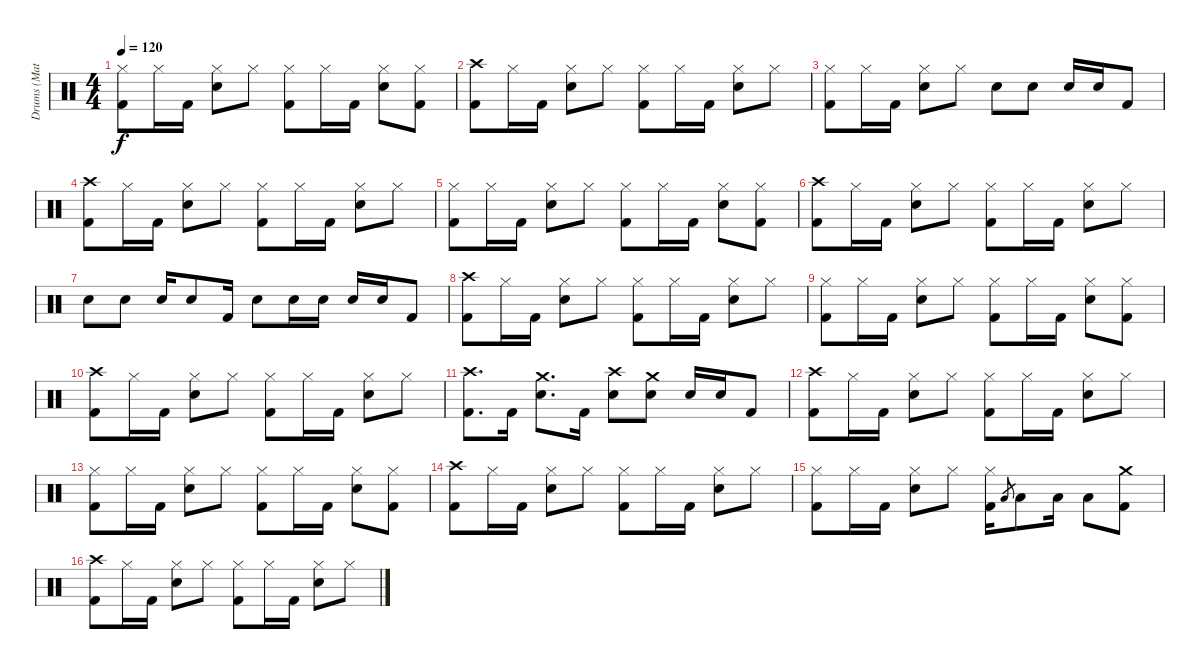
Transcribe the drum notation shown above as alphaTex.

\track ("Drums (Matt)" "Drums (Mat") {instrument percussion}
\staff {score}
\articulation defaults
\ts (4 4)
\tempo 120
\clef neutral
\ks c
("Hi-Hat (closed)" "Kick (hit) 2").8{dy f} "Hi-Hat (closed)".16 "Kick (hit) 2".16 ("Hi-Hat (closed)" "Snare (hit) 2").8 "Hi-Hat (closed)".8 ("Hi-Hat (closed)" "Kick (hit) 2").8 "Hi-Hat (closed)".16 "Kick (hit) 2".16 ("Hi-Hat (closed)" "Snare (hit) 2").8 ("Hi-Hat (closed)" "Kick (hit) 2").8 |
("Crash high (hit)" "Kick (hit) 2").8 "Hi-Hat (closed)".16 "Kick (hit) 2".16 ("Hi-Hat (closed)" "Snare (hit) 2").8 "Hi-Hat (closed)".8 ("Hi-Hat (closed)" "Kick (hit) 2").8 "Hi-Hat (closed)".16 "Kick (hit) 2".16 ("Hi-Hat (closed)" "Snare (hit) 2").8 "Hi-Hat (closed)".8 |
("Hi-Hat (closed)" "Kick (hit) 2").8 "Hi-Hat (closed)".16 "Kick (hit) 2".16 ("Hi-Hat (closed)" "Snare (hit) 2").8 "Hi-Hat (closed)".8 "Snare (hit) 2".8 "Snare (hit) 2".8 "Snare (hit) 2".16 "Snare (hit) 2".16 "Kick (hit) 2".8 |
("Crash high (hit)" "Kick (hit) 2").8 "Hi-Hat (closed)".16 "Kick (hit) 2".16 ("Hi-Hat (closed)" "Snare (hit) 2").8 "Hi-Hat (closed)".8 ("Hi-Hat (closed)" "Kick (hit) 2").8 "Hi-Hat (closed)".16 "Kick (hit) 2".16 ("Hi-Hat (closed)" "Snare (hit) 2").8 "Hi-Hat (closed)".8 |
("Hi-Hat (closed)" "Kick (hit) 2").8 "Hi-Hat (closed)".16 "Kick (hit) 2".16 ("Hi-Hat (closed)" "Snare (hit) 2").8 "Hi-Hat (closed)".8 ("Hi-Hat (closed)" "Kick (hit) 2").8 "Hi-Hat (closed)".16 "Kick (hit) 2".16 ("Hi-Hat (closed)" "Snare (hit) 2").8 ("Hi-Hat (closed)" "Kick (hit) 2").8 |
("Crash high (hit)" "Kick (hit) 2").8 "Hi-Hat (closed)".16 "Kick (hit) 2".16 ("Hi-Hat (closed)" "Snare (hit) 2").8 "Hi-Hat (closed)".8 ("Hi-Hat (closed)" "Kick (hit) 2").8 "Hi-Hat (closed)".16 "Kick (hit) 2".16 ("Hi-Hat (closed)" "Snare (hit) 2").8 "Hi-Hat (closed)".8 |
"Snare (hit) 2".8 "Snare (hit) 2".8 "Snare (hit) 2".16 "Snare (hit) 2".8 "Kick (hit) 2".16 "Snare (hit) 2".8 "Snare (hit) 2".16 "Snare (hit) 2".16 "Snare (hit) 2".16 "Snare (hit) 2".16 "Kick (hit) 2".8 |
("Crash high (hit)" "Kick (hit) 2").8 "Hi-Hat (closed)".16 "Kick (hit) 2".16 ("Hi-Hat (closed)" "Snare (hit) 2").8 "Hi-Hat (closed)".8 ("Hi-Hat (closed)" "Kick (hit) 2").8 "Hi-Hat (closed)".16 "Kick (hit) 2".16 ("Hi-Hat (closed)" "Snare (hit) 2").8 "Hi-Hat (closed)".8 |
("Hi-Hat (closed)" "Kick (hit) 2").8 "Hi-Hat (closed)".16 "Kick (hit) 2".16 ("Hi-Hat (closed)" "Snare (hit) 2").8 "Hi-Hat (closed)".8 ("Hi-Hat (closed)" "Kick (hit) 2").8 "Hi-Hat (closed)".16 "Kick (hit) 2".16 ("Hi-Hat (closed)" "Snare (hit) 2").8 ("Hi-Hat (closed)" "Kick (hit) 2").8 |
("Crash high (hit)" "Kick (hit) 2").8 "Hi-Hat (closed)".16 "Kick (hit) 2".16 ("Hi-Hat (closed)" "Snare (hit) 2").8 "Hi-Hat (closed)".8 ("Hi-Hat (closed)" "Kick (hit) 2").8 "Hi-Hat (closed)".16 "Kick (hit) 2".16 ("Hi-Hat (closed)" "Snare (hit) 2").8 "Hi-Hat (closed)".8 |
("Crash high (hit)" "Kick (hit) 2").8{d} "Kick (hit) 2".16 ("Crash medium (hit)" "Snare (hit) 2").8{d} "Kick (hit) 2".16 ("Crash high (hit)" "Snare (hit) 2").8 ("Crash medium (hit)" "Snare (hit) 2").8 "Snare (hit) 2".16 "Snare (hit) 2".16 "Kick (hit) 2".8 |
("Crash high (hit)" "Kick (hit) 2").8 "Hi-Hat (closed)".16 "Kick (hit) 2".16 ("Hi-Hat (closed)" "Snare (hit) 2").8 "Hi-Hat (closed)".8 ("Hi-Hat (closed)" "Kick (hit) 2").8 "Hi-Hat (closed)".16 "Kick (hit) 2".16 ("Hi-Hat (closed)" "Snare (hit) 2").8 "Hi-Hat (closed)".8 |
("Hi-Hat (closed)" "Kick (hit) 2").8 "Hi-Hat (closed)".16 "Kick (hit) 2".16 ("Hi-Hat (closed)" "Snare (hit) 2").8 "Hi-Hat (closed)".8 ("Hi-Hat (closed)" "Kick (hit) 2").8 "Hi-Hat (closed)".16 "Kick (hit) 2".16 ("Hi-Hat (closed)" "Snare (hit) 2").8 ("Hi-Hat (closed)" "Kick (hit) 2").8 |
("Crash high (hit)" "Kick (hit) 2").8 "Hi-Hat (closed)".16 "Kick (hit) 2".16 ("Hi-Hat (closed)" "Snare (hit) 2").8 "Hi-Hat (closed)".8 ("Hi-Hat (closed)" "Kick (hit) 2").8 "Hi-Hat (closed)".16 "Kick (hit) 2".16 ("Hi-Hat (closed)" "Snare (hit) 2").8 "Hi-Hat (closed)".8 |
("Hi-Hat (closed)" "Kick (hit) 2").8 "Hi-Hat (closed)".16 "Kick (hit) 2".16 ("Hi-Hat (closed)" "Snare (hit) 2").8 "Hi-Hat (closed)".8 ("Hi-Hat (closed)" "Kick (hit) 2").16 "Low Tom (hit)".8{gr} "Low Tom (hit)".8 "Low Tom (hit)".16 "Low Tom (hit)".8 ("Crash medium (hit)" "Kick (hit) 2").8 |
("Crash high (hit)" "Kick (hit) 2").8 "Hi-Hat (closed)".16 "Kick (hit) 2".16 ("Hi-Hat (closed)" "Snare (hit) 2").8 "Hi-Hat (closed)".8 ("Hi-Hat (closed)" "Kick (hit) 2").8 "Hi-Hat (closed)".16 "Kick (hit) 2".16 ("Hi-Hat (closed)" "Snare (hit) 2").8 "Hi-Hat (closed)".8
